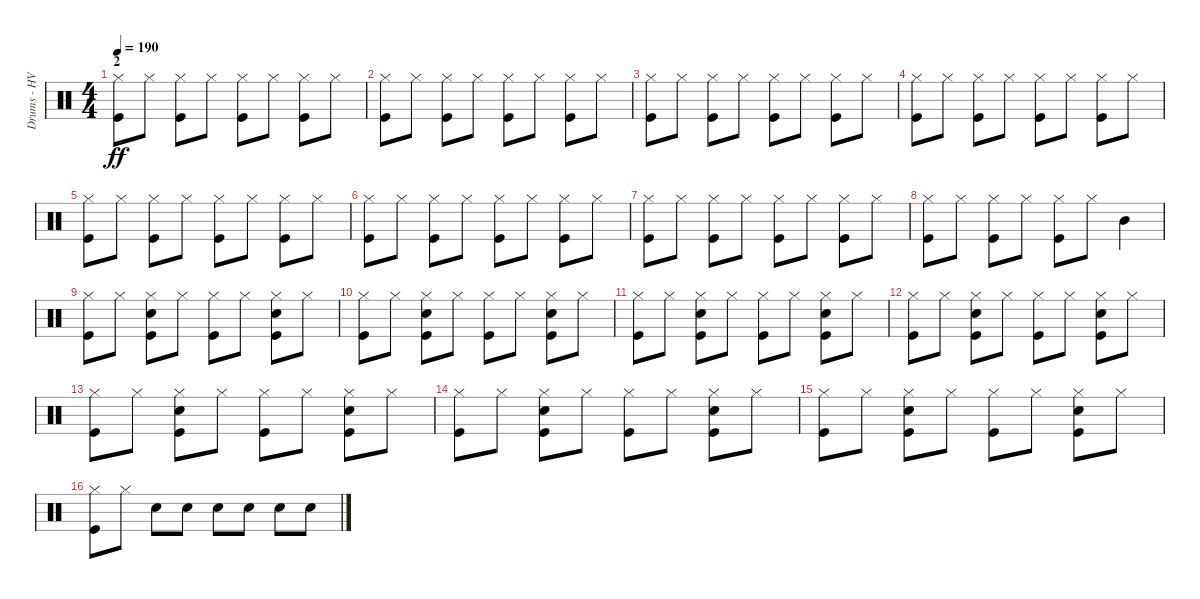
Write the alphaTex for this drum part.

\track ("Drums - HV NikiTon" "Drums - HV") {instrument percussion}
\staff {score}
\articulation defaults
\ts (4 4)
\section ("" "2")
\tempo 190
\clef neutral
\ks c
("Hi-Hat (closed)" "Kick (hit)").8{dy ff} "Hi-Hat (closed)".8 ("Hi-Hat (closed)" "Kick (hit)").8 "Hi-Hat (closed)".8 ("Hi-Hat (closed)" "Kick (hit)").8 "Hi-Hat (closed)".8 ("Hi-Hat (closed)" "Kick (hit)").8 "Hi-Hat (closed)".8 |
("Hi-Hat (closed)" "Kick (hit)").8 "Hi-Hat (closed)".8 ("Hi-Hat (closed)" "Kick (hit)").8 "Hi-Hat (closed)".8 ("Hi-Hat (closed)" "Kick (hit)").8 "Hi-Hat (closed)".8 ("Hi-Hat (closed)" "Kick (hit)").8 "Hi-Hat (closed)".8 |
("Hi-Hat (closed)" "Kick (hit)").8 "Hi-Hat (closed)".8 ("Hi-Hat (closed)" "Kick (hit)").8 "Hi-Hat (closed)".8 ("Hi-Hat (closed)" "Kick (hit)").8 "Hi-Hat (closed)".8 ("Hi-Hat (closed)" "Kick (hit)").8 "Hi-Hat (closed)".8 |
("Hi-Hat (closed)" "Kick (hit)").8 "Hi-Hat (closed)".8 ("Hi-Hat (closed)" "Kick (hit)").8 "Hi-Hat (closed)".8 ("Hi-Hat (closed)" "Kick (hit)").8 "Hi-Hat (closed)".8 ("Hi-Hat (closed)" "Kick (hit)").8 "Hi-Hat (closed)".8 |
("Hi-Hat (closed)" "Kick (hit)").8 "Hi-Hat (closed)".8 ("Hi-Hat (closed)" "Kick (hit)").8 "Hi-Hat (closed)".8 ("Hi-Hat (closed)" "Kick (hit)").8 "Hi-Hat (closed)".8 ("Hi-Hat (closed)" "Kick (hit)").8 "Hi-Hat (closed)".8 |
("Hi-Hat (closed)" "Kick (hit)").8 "Hi-Hat (closed)".8 ("Hi-Hat (closed)" "Kick (hit)").8 "Hi-Hat (closed)".8 ("Hi-Hat (closed)" "Kick (hit)").8 "Hi-Hat (closed)".8 ("Hi-Hat (closed)" "Kick (hit)").8 "Hi-Hat (closed)".8 |
("Hi-Hat (closed)" "Kick (hit)").8 "Hi-Hat (closed)".8 ("Hi-Hat (closed)" "Kick (hit)").8 "Hi-Hat (closed)".8 ("Hi-Hat (closed)" "Kick (hit)").8 "Hi-Hat (closed)".8 ("Hi-Hat (closed)" "Kick (hit)").8 "Hi-Hat (closed)".8 |
("Hi-Hat (closed)" "Kick (hit)").8 "Hi-Hat (closed)".8 ("Hi-Hat (closed)" "Kick (hit)").8 "Hi-Hat (closed)".8 ("Hi-Hat (closed)" "Kick (hit)").8 "Hi-Hat (closed)".8 "Mid Tom (hit)".4 |
("Hi-Hat (closed)" "Kick (hit)").8 "Hi-Hat (closed)".8 ("Hi-Hat (closed)" "Kick (hit)" "Electric Snare (hit)").8 "Hi-Hat (closed)".8 ("Hi-Hat (closed)" "Kick (hit)").8 "Hi-Hat (closed)".8 ("Hi-Hat (closed)" "Kick (hit)" "Electric Snare (hit)").8 "Hi-Hat (closed)".8 |
("Hi-Hat (closed)" "Kick (hit)").8 "Hi-Hat (closed)".8 ("Hi-Hat (closed)" "Kick (hit)" "Electric Snare (hit)").8 "Hi-Hat (closed)".8 ("Hi-Hat (closed)" "Kick (hit)").8 "Hi-Hat (closed)".8 ("Hi-Hat (closed)" "Kick (hit)" "Electric Snare (hit)").8 "Hi-Hat (closed)".8 |
("Hi-Hat (closed)" "Kick (hit)").8 "Hi-Hat (closed)".8 ("Hi-Hat (closed)" "Kick (hit)" "Electric Snare (hit)").8 "Hi-Hat (closed)".8 ("Hi-Hat (closed)" "Kick (hit)").8 "Hi-Hat (closed)".8 ("Hi-Hat (closed)" "Kick (hit)" "Electric Snare (hit)").8 "Hi-Hat (closed)".8 |
("Hi-Hat (closed)" "Kick (hit)").8 "Hi-Hat (closed)".8 ("Hi-Hat (closed)" "Kick (hit)" "Electric Snare (hit)").8 "Hi-Hat (closed)".8 ("Hi-Hat (closed)" "Kick (hit)").8 "Hi-Hat (closed)".8 ("Hi-Hat (closed)" "Kick (hit)" "Electric Snare (hit)").8 "Hi-Hat (closed)".8 |
("Hi-Hat (closed)" "Kick (hit)").8 "Hi-Hat (closed)".8 ("Hi-Hat (closed)" "Kick (hit)" "Electric Snare (hit)").8 "Hi-Hat (closed)".8 ("Hi-Hat (closed)" "Kick (hit)").8 "Hi-Hat (closed)".8 ("Hi-Hat (closed)" "Kick (hit)" "Electric Snare (hit)").8 "Hi-Hat (closed)".8 |
("Hi-Hat (closed)" "Kick (hit)").8 "Hi-Hat (closed)".8 ("Hi-Hat (closed)" "Kick (hit)" "Electric Snare (hit)").8 "Hi-Hat (closed)".8 ("Hi-Hat (closed)" "Kick (hit)").8 "Hi-Hat (closed)".8 ("Hi-Hat (closed)" "Kick (hit)" "Electric Snare (hit)").8 "Hi-Hat (closed)".8 |
("Hi-Hat (closed)" "Kick (hit)").8 "Hi-Hat (closed)".8 ("Hi-Hat (closed)" "Kick (hit)" "Electric Snare (hit)").8 "Hi-Hat (closed)".8 ("Hi-Hat (closed)" "Kick (hit)").8 "Hi-Hat (closed)".8 ("Hi-Hat (closed)" "Kick (hit)" "Electric Snare (hit)").8 "Hi-Hat (closed)".8 |
("Hi-Hat (closed)" "Kick (hit)").8 "Hi-Hat (closed)".8 "Electric Snare (hit)".8 "Electric Snare (hit)".8 "Electric Snare (hit)".8 "Electric Snare (hit)".8 "Electric Snare (hit)".8 "Electric Snare (hit)".8
